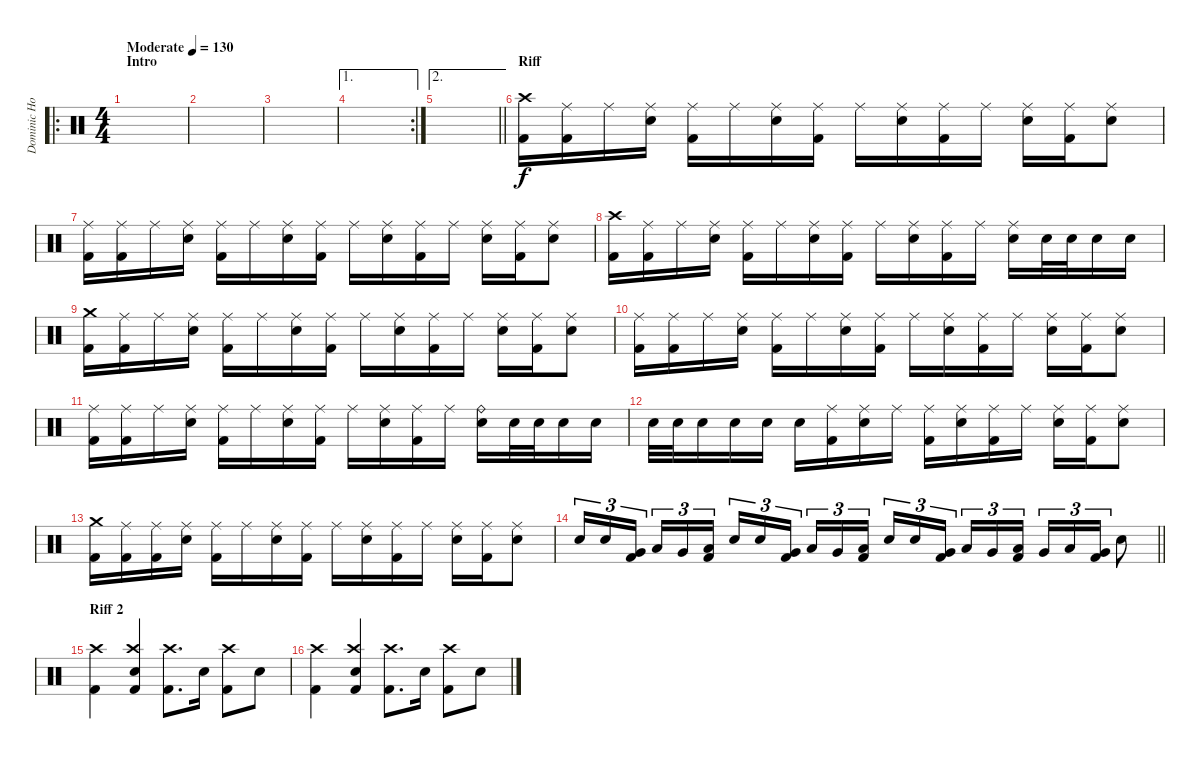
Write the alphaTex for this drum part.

\track ("Dominic Howard" "Dominic Ho") {instrument percussion}
\staff {score}
\articulation defaults
\ro
\ts (4 4)
\section ("" "Intro")
\tempo (130 "Moderate")
\clef neutral
\ks c
|
|
|
\ae 1
\rc 2
|
\ae 2
\barLineRight lightlight
|
\section ("" "Riff")
("Kick (hit) 2" "Crash high (hit)").16 ("Ride (middle)" "Kick (hit) 2").16 "Ride (middle)".16 ("Electric Snare (hit)" "Ride (middle)").16 ("Ride (middle)" "Kick (hit) 2").16 "Ride (middle)".16 ("Ride (middle)" "Electric Snare (hit)").16 ("Kick (hit) 2" "Ride (middle)").16 "Ride (middle)".16 ("Electric Snare (hit)" "Ride (middle)").16 ("Kick (hit) 2" "Ride (middle)").16 "Ride (middle)".16 ("Electric Snare (hit)" "Ride (middle)").16 ("Kick (hit) 2" "Ride (middle)").16 ("Electric Snare (hit)" "Ride (middle)").8 |
("Kick (hit) 2" "Ride (middle)").16 ("Ride (middle)" "Kick (hit) 2").16 "Ride (middle)".16 ("Electric Snare (hit)" "Ride (middle)").16 ("Ride (middle)" "Kick (hit) 2").16 "Ride (middle)".16 ("Ride (middle)" "Electric Snare (hit)").16 ("Kick (hit) 2" "Ride (middle)").16 "Ride (middle)".16 ("Electric Snare (hit)" "Ride (middle)").16 ("Kick (hit) 2" "Ride (middle)").16 "Ride (middle)".16 ("Electric Snare (hit)" "Ride (middle)").16 ("Kick (hit) 2" "Ride (middle)").16 ("Electric Snare (hit)" "Ride (middle)").8 |
("Kick (hit) 2" "Crash high (hit)").16 ("Ride (middle)" "Kick (hit) 2").16 "Ride (middle)".16 ("Electric Snare (hit)" "Ride (middle)").16 ("Ride (middle)" "Kick (hit) 2").16 "Ride (middle)".16 ("Ride (middle)" "Electric Snare (hit)").16 ("Kick (hit) 2" "Ride (middle)").16 "Ride (middle)".16 ("Electric Snare (hit)" "Ride (middle)").16 ("Kick (hit) 2" "Ride (middle)").16 "Ride (middle)".16 ("Ride (middle)" "Electric Snare (hit)").16 "Electric Snare (hit)".32 "Electric Snare (hit)".32 "Electric Snare (hit)".16 "Electric Snare (hit)".16 |
("Kick (hit) 2" "Crash medium (hit)").16 ("Ride (middle)" "Kick (hit) 2").16 "Ride (middle)".16 ("Electric Snare (hit)" "Ride (middle)").16 ("Ride (middle)" "Kick (hit) 2").16 "Ride (middle)".16 ("Ride (middle)" "Electric Snare (hit)").16 ("Kick (hit) 2" "Ride (middle)").16 "Ride (middle)".16 ("Electric Snare (hit)" "Ride (middle)").16 ("Kick (hit) 2" "Ride (middle)").16 "Ride (middle)".16 ("Electric Snare (hit)" "Ride (middle)").16 ("Kick (hit) 2" "Ride (middle)").16 ("Electric Snare (hit)" "Ride (middle)").8 |
("Kick (hit) 2" "Ride (middle)").16 ("Ride (middle)" "Kick (hit) 2").16 "Ride (middle)".16 ("Electric Snare (hit)" "Ride (middle)").16 ("Ride (middle)" "Kick (hit) 2").16 "Ride (middle)".16 ("Ride (middle)" "Electric Snare (hit)").16 ("Kick (hit) 2" "Ride (middle)").16 "Ride (middle)".16 ("Electric Snare (hit)" "Ride (middle)").16 ("Kick (hit) 2" "Ride (middle)").16 "Ride (middle)".16 ("Electric Snare (hit)" "Ride (middle)").16 ("Kick (hit) 2" "Ride (middle)").16 ("Electric Snare (hit)" "Ride (middle)").8 |
("Kick (hit) 2" "Ride (middle)").16 ("Ride (middle)" "Kick (hit) 2").16 "Ride (middle)".16 ("Electric Snare (hit)" "Ride (middle)").16 ("Ride (middle)" "Kick (hit) 2").16 "Ride (middle)".16 ("Ride (middle)" "Electric Snare (hit)").16 ("Kick (hit) 2" "Ride (middle)").16 "Ride (middle)".16 ("Electric Snare (hit)" "Ride (middle)").16 ("Kick (hit) 2" "Ride (middle)").16 "Ride (middle)".16 ("Ride (bell)" "Electric Snare (hit)").16 "Electric Snare (hit)".32 "Electric Snare (hit)".32 "Electric Snare (hit)".16 "Electric Snare (hit)".16 |
"Electric Snare (hit)".32 "Electric Snare (hit)".32 "Electric Snare (hit)".16 "Electric Snare (hit)".16 "Electric Snare (hit)".16 "Electric Snare (hit)".16 ("Kick (hit) 2" "Ride (middle)").16 ("Electric Snare (hit)" "Ride (middle)").16 "Ride (middle)".16 ("Kick (hit) 2" "Ride (middle)").16 ("Electric Snare (hit)" "Ride (middle)").16 ("Kick (hit) 2" "Ride (middle)").16 "Ride (middle)".16 ("Electric Snare (hit)" "Ride (middle)").16 ("Kick (hit) 2" "Ride (middle)").16 ("Electric Snare (hit)" "Ride (middle)").8 |
("Kick (hit) 2" "Crash medium (hit)").16 ("Ride (middle)" "Kick (hit) 2").16 ("Ride (middle)" "Kick (hit) 2").16 ("Electric Snare (hit)" "Ride (middle)").16 ("Ride (middle)" "Kick (hit) 2").16 "Ride (middle)".16 ("Ride (middle)" "Electric Snare (hit)").16 ("Kick (hit) 2" "Ride (middle)").16 "Ride (middle)".16 ("Electric Snare (hit)" "Ride (middle)").16 ("Kick (hit) 2" "Ride (middle)").16 "Ride (middle)".16 ("Electric Snare (hit)" "Ride (middle)").16 ("Kick (hit) 2" "Ride (middle)").16 ("Electric Snare (hit)" "Ride (middle)").8 |
\barLineRight lightlight "Electric Snare (hit)".16{tu (3 2)} "Electric Snare (hit)".16{tu (3 2)}
("Very Low Tom (hit)" "Kick (hit) 2").16{tu (3 2) beam splitsecondary} "Low Tom (hit)".16{tu (3 2)} "Very Low Tom (hit)".16{tu (3 2)} ("Low Tom (hit)" "Kick (hit) 2").16{tu (3 2)} "Electric Snare (hit)".16{tu (3 2)} "Electric Snare (hit)".16{tu (3 2)} ("Very Low Tom (hit)" "Kick (hit) 2").16{tu (3 2) beam splitsecondary} "Low Tom (hit)".16{tu (3 2)} "Very Low Tom (hit)".16{tu (3 2)} ("Low Tom (hit)" "Kick (hit) 2").16{tu (3 2)} "Electric Snare (hit)".16{tu (3 2)} "Electric Snare (hit)".16{tu (3 2)} ("Very Low Tom (hit)" "Kick (hit) 2").16{tu (3 2) beam splitsecondary} "Low Tom (hit)".16{tu (3 2)} "Very Low Tom (hit)".16{tu (3 2)} ("Low Tom (hit)" "Kick (hit) 2").16{tu (3 2)} "Very Low Tom (hit)".16{tu (3 2)} "Low Tom (hit)".16{tu (3 2)} ("Very Low Tom (hit)" "Kick (hit) 2").16{tu (3 2)} "Electric Snare (hit)".8 |
\section ("" "Riff 2")
("Crash high (hit)" "Kick (hit) 2").4 ("Kick (hit) 2" "Crash high (hit)" "Electric Snare (hit)").4 ("Crash high (hit)" "Kick (hit) 2").8{d} "Electric Snare (hit)".16 ("Crash high (hit)" "Kick (hit) 2").8 "Electric Snare (hit)".8 |
("Crash high (hit)" "Kick (hit) 2").4 ("Kick (hit) 2" "Crash high (hit)" "Electric Snare (hit)").4 ("Crash high (hit)" "Kick (hit) 2").8{d} "Electric Snare (hit)".16 ("Crash high (hit)" "Kick (hit) 2").8 "Electric Snare (hit)".8
